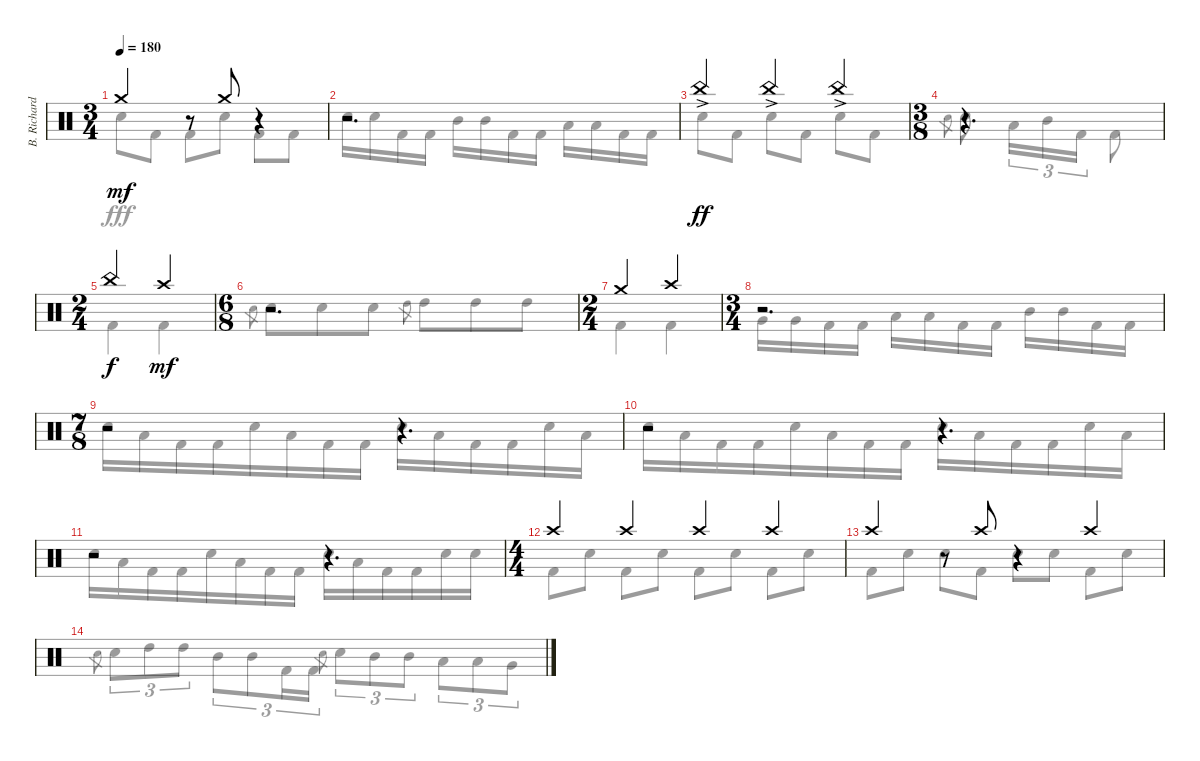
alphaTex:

\track ("B. Richardson Drums" "B. Richard") {instrument percussion}
\staff {score}
\articulation defaults
\voice
\ts (3 4)
\tempo 180
\clef neutral
\ks c "Crash medium (hit)".4{dy mf}
r.8 "Crash medium (hit)".8 r.4 |
r.2{d} |
"China (hit)"{ac}.4{dy ff} "China (hit)"{ac}.4 "China (hit)"{ac}.4 |
\ts (3 8)
r.4{d} |
\ts (2 4)
"China (hit)".4{dy f} "Crash high (hit)".4{dy mf} |
\ts (6 8)
r.2{d} |
\ts (2 4)
"Crash medium (hit)".4 "Crash high (hit)".4 |
\ts (3 4)
r.2{d} |
\ts (7 8)
r.2 r.4{d} |
r.2 r.4{d} |
r.2 r.4{d} |
\ts (4 4)
"Crash high (hit)".4 "Crash high (hit)".4 "Crash high (hit)".4 "Crash high (hit)".4 |
"Crash high (hit)".4 r.8 "Crash high (hit)".8 r.4 "Crash high (hit)".4 |
\voice
\clef neutral
\ottava regular
\simile none
\ks c "Electric Snare (hit)".8{dy fff} "Kick (hit) 2".8 "Kick (hit) 2".8 "Electric Snare (hit)".8 "Kick (hit) 2".8 "Kick (hit) 2".8
|
"Electric Snare (hit)".16 "Electric Snare (hit)".16 "Kick (hit) 2".16 "Kick (hit) 2".16 "Mid Tom (hit)".16 "Mid Tom (hit)".16 "Kick (hit) 2".16 "Kick (hit) 2".16 "Low Tom (hit)".16 "Low Tom (hit)".16 "Kick (hit) 2".16 "Kick (hit) 2".16 |
"Electric Snare (hit)".8 "Kick (hit) 2".8 "Electric Snare (hit)".8 "Kick (hit) 2".8 "Electric Snare (hit)".8 "Kick (hit) 2".8 |
"Electric Snare (hit)".8{gr} "Electric Snare (hit)".8 "Low Tom (hit)".16{tu (3 2)} "Mid Tom (hit)".16{tu (3 2)} "Kick (hit) 2".16{tu (3 2)} "Kick (hit) 2".8 |
"Kick (hit) 2".4 "Kick (hit) 2".4 |
"Electric Snare (hit)".8{gr} "Electric Snare (hit)".8 "Electric Snare (hit)".8 "Electric Snare (hit)".8 "High Tom (hit)".8{gr} "High Tom (hit)".8 "High Tom (hit)".8 "High Tom (hit)".8 |
"Kick (hit) 2".4 "Kick (hit) 2".4 |
"Very Low Tom (hit)".16 "Very Low Tom (hit)".16 "Kick (hit) 2".16 "Kick (hit) 2".16 "Low Tom (hit)".16 "Low Tom (hit)".16 "Kick (hit) 2".16 "Kick (hit) 2".16 "Mid Tom (hit)".16 "Mid Tom (hit)".16 "Kick (hit) 2".16 "Kick (hit) 2".16 |
"Electric Snare (hit)".16 "Low Tom (hit)".16 "Kick (hit) 2".16 "Kick (hit) 2".16 "Electric Snare (hit)".16 "Low Tom (hit)".16 "Kick (hit) 2".16 "Kick (hit) 2".16 "Electric Snare (hit)".16 "Low Tom (hit)".16 "Kick (hit) 2".16 "Kick (hit) 2".16 "Electric Snare (hit)".16 "Low Tom (hit)".16 |
"Electric Snare (hit)".16 "Low Tom (hit)".16 "Kick (hit) 2".16 "Kick (hit) 2".16 "Electric Snare (hit)".16 "Low Tom (hit)".16 "Kick (hit) 2".16 "Kick (hit) 2".16 "Electric Snare (hit)".16 "Low Tom (hit)".16 "Kick (hit) 2".16 "Kick (hit) 2".16 "Electric Snare (hit)".16 "Low Tom (hit)".16 |
"Electric Snare (hit)".16 "Low Tom (hit)".16 "Kick (hit) 2".16 "Kick (hit) 2".16 "Electric Snare (hit)".16 "Low Tom (hit)".16 "Kick (hit) 2".16 "Kick (hit) 2".16 "Electric Snare (hit)".16 "Low Tom (hit)".16 "Kick (hit) 2".16 "Kick (hit) 2".16 "Electric Snare (hit)".16 "Electric Snare (hit)".16 |
"Kick (hit) 2".8 "Electric Snare (hit)".8 "Kick (hit) 2".8 "Electric Snare (hit)".8 "Kick (hit) 2".8 "Electric Snare (hit)".8 "Kick (hit) 2".8 "Electric Snare (hit)".8 |
"Kick (hit) 2".8 "Electric Snare (hit)".8 "Electric Snare (hit)".8 "Kick (hit) 2".8 "Electric Snare (hit)".8 "Electric Snare (hit)".8 "Kick (hit) 2".8 "Electric Snare (hit)".8 |
"Electric Snare (hit)".8{gr} "Electric Snare (hit)".8{tu (3 2)} "High Tom (hit)".8{tu (3 2)} "High Tom (hit)".8{tu (3 2)} "Mid Tom (hit)".8{tu (3 2)} "Mid Tom (hit)".8{tu (3 2)} "Kick (hit) 2".16{tu (3 2)} "Kick (hit) 2".16{tu (3 2)} "Electric Snare (hit)".8{gr} "Electric Snare (hit)".8{tu (3 2)} "Mid Tom (hit)".8{tu (3 2)} "Mid Tom (hit)".8{tu (3 2)} "Low Tom (hit)".8{tu (3 2)} "Low Tom (hit)".8{tu (3 2)} "Very Low Tom (hit)".8{tu (3 2)}
